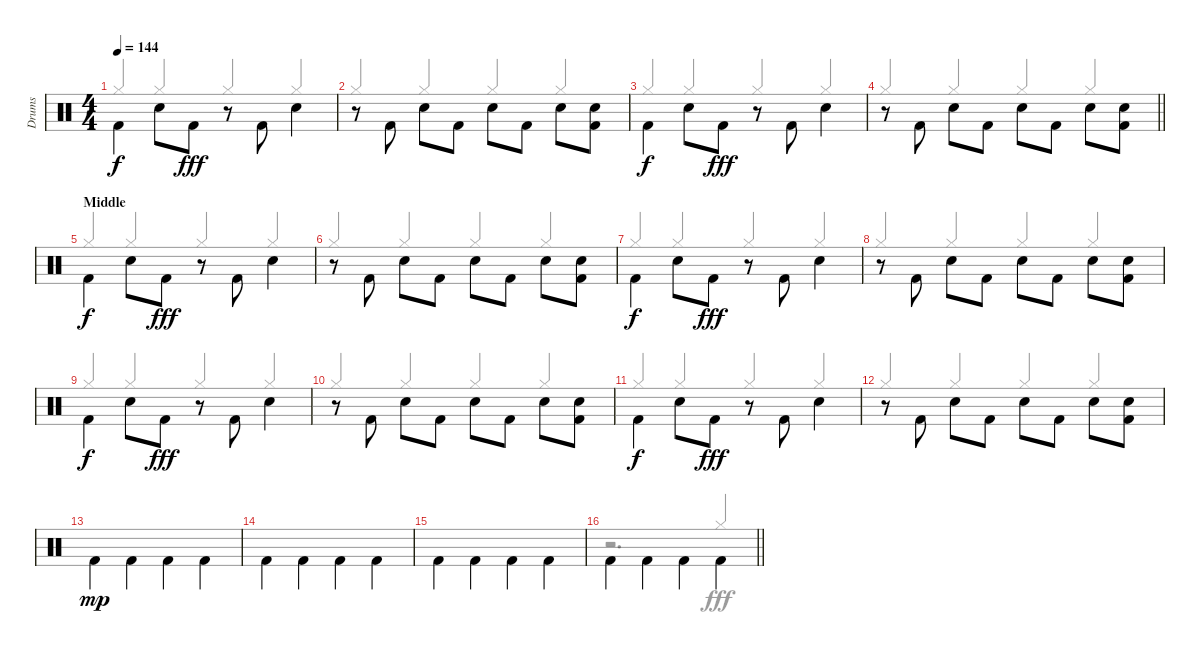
\track ("Drums" "Drums") {instrument percussion}
\staff {score}
\articulation defaults
\voice
\ts (4 4)
\tempo 144
\clef neutral
\ks c "Kick (hit) 2".4{dy f beam Down} "Snare (hit) 2".8{beam Down} "Kick (hit) 2".8{dy fff beam Down}
r.8 "Kick (hit) 2".8{beam Down} "Snare (hit) 2".4{beam Down} |
r.8 "Kick (hit) 2".8{beam Down} "Snare (hit) 2".8{beam Down} "Kick (hit) 2".8{beam Down} "Snare (hit) 2".8{beam Down} "Kick (hit) 2".8{beam Down} "Snare (hit) 2".8{beam Down} ("Snare (hit) 2" "Kick (hit) 2").8{beam Down} |
"Kick (hit) 2".4{dy f beam Down} "Snare (hit) 2".8{beam Down} "Kick (hit) 2".8{dy fff beam Down} r.8 "Kick (hit) 2".8{beam Down} "Snare (hit) 2".4{beam Down} |
\barLineRight lightlight
r.8 "Kick (hit) 2".8{beam Down} "Snare (hit) 2".8{beam Down} "Kick (hit) 2".8{beam Down} "Snare (hit) 2".8{beam Down} "Kick (hit) 2".8{beam Down} "Snare (hit) 2".8{beam Down} ("Snare (hit) 2" "Kick (hit) 2").8{beam Down} |
\section ("" "Middle")
"Kick (hit) 2".4{dy f beam Down} "Snare (hit) 2".8{beam Down} "Kick (hit) 2".8{dy fff beam Down} r.8 "Kick (hit) 2".8{beam Down} "Snare (hit) 2".4{beam Down} |
r.8 "Kick (hit) 2".8{beam Down} "Snare (hit) 2".8{beam Down} "Kick (hit) 2".8{beam Down} "Snare (hit) 2".8{beam Down} "Kick (hit) 2".8{beam Down} "Snare (hit) 2".8{beam Down} ("Snare (hit) 2" "Kick (hit) 2").8{beam Down} |
"Kick (hit) 2".4{dy f beam Down} "Snare (hit) 2".8{beam Down} "Kick (hit) 2".8{dy fff beam Down} r.8 "Kick (hit) 2".8{beam Down} "Snare (hit) 2".4{beam Down} |
r.8 "Kick (hit) 2".8{beam Down} "Snare (hit) 2".8{beam Down} "Kick (hit) 2".8{beam Down} "Snare (hit) 2".8{beam Down} "Kick (hit) 2".8{beam Down} "Snare (hit) 2".8{beam Down} ("Snare (hit) 2" "Kick (hit) 2").8{beam Down} |
"Kick (hit) 2".4{dy f beam Down} "Snare (hit) 2".8{beam Down} "Kick (hit) 2".8{dy fff beam Down} r.8 "Kick (hit) 2".8{beam Down} "Snare (hit) 2".4{beam Down} |
r.8 "Kick (hit) 2".8{beam Down} "Snare (hit) 2".8{beam Down} "Kick (hit) 2".8{beam Down} "Snare (hit) 2".8{beam Down} "Kick (hit) 2".8{beam Down} "Snare (hit) 2".8{beam Down} ("Snare (hit) 2" "Kick (hit) 2").8{beam Down} |
"Kick (hit) 2".4{dy f beam Down} "Snare (hit) 2".8{beam Down} "Kick (hit) 2".8{dy fff beam Down} r.8 "Kick (hit) 2".8{beam Down} "Snare (hit) 2".4{beam Down} |
r.8 "Kick (hit) 2".8{beam Down} "Snare (hit) 2".8{beam Down} "Kick (hit) 2".8{beam Down} "Snare (hit) 2".8{beam Down} "Kick (hit) 2".8{beam Down} "Snare (hit) 2".8{beam Down} ("Snare (hit) 2" "Kick (hit) 2").8{beam Down} |
"Kick (hit) 2".4{dy mp beam Down} "Kick (hit) 2".4{beam Down} "Kick (hit) 2".4{beam Down} "Kick (hit) 2".4{beam Down} |
"Kick (hit) 2".4{beam Down} "Kick (hit) 2".4{beam Down} "Kick (hit) 2".4{beam Down} "Kick (hit) 2".4{beam Down} |
"Kick (hit) 2".4{beam Down} "Kick (hit) 2".4{beam Down} "Kick (hit) 2".4{beam Down} "Kick (hit) 2".4{beam Down} |
\barLineRight lightlight "Kick (hit) 2".4{beam Down} "Kick (hit) 2".4{beam Down} "Kick (hit) 2".4{beam Down} "Kick (hit) 2".4{beam Down}
\voice
\clef neutral
\ottava regular
\simile none
\ks c "Hi-Hat (closed)".4{dy f beam Up} "Hi-Hat (closed)".4{beam Up} "Hi-Hat (closed)".4{beam Up} "Hi-Hat (closed)".4{beam Up}
|
"Hi-Hat (closed)".4{beam Up} "Hi-Hat (closed)".4{beam Up} "Hi-Hat (closed)".4{beam Up} "Hi-Hat (closed)".4{beam Up} |
"Hi-Hat (closed)".4{beam Up} "Hi-Hat (closed)".4{beam Up} "Hi-Hat (closed)".4{beam Up} "Hi-Hat (closed)".4{beam Up} |
\barLineRight lightlight "Hi-Hat (closed)".4{beam Up} "Hi-Hat (closed)".4{beam Up} "Hi-Hat (closed)".4{beam Up} "Hi-Hat (closed)".4{beam Up}
|
"Hi-Hat (closed)".4{beam Up} "Hi-Hat (closed)".4{beam Up} "Hi-Hat (closed)".4{beam Up} "Hi-Hat (closed)".4{beam Up} |
"Hi-Hat (closed)".4{beam Up} "Hi-Hat (closed)".4{beam Up} "Hi-Hat (closed)".4{beam Up} "Hi-Hat (closed)".4{beam Up} |
"Hi-Hat (closed)".4{beam Up} "Hi-Hat (closed)".4{beam Up} "Hi-Hat (closed)".4{beam Up} "Hi-Hat (closed)".4{beam Up} |
"Hi-Hat (closed)".4{beam Up} "Hi-Hat (closed)".4{beam Up} "Hi-Hat (closed)".4{beam Up} "Hi-Hat (closed)".4{beam Up} |
"Hi-Hat (closed)".4{beam Up} "Hi-Hat (closed)".4{beam Up} "Hi-Hat (closed)".4{beam Up} "Hi-Hat (closed)".4{beam Up} |
"Hi-Hat (closed)".4{beam Up} "Hi-Hat (closed)".4{beam Up} "Hi-Hat (closed)".4{beam Up} "Hi-Hat (closed)".4{beam Up} |
"Hi-Hat (closed)".4{beam Up} "Hi-Hat (closed)".4{beam Up} "Hi-Hat (closed)".4{beam Up} "Hi-Hat (closed)".4{beam Up} |
"Hi-Hat (closed)".4{beam Up} "Hi-Hat (closed)".4{beam Up} "Hi-Hat (closed)".4{beam Up} "Hi-Hat (closed)".4{beam Up} |
|
|
|
\barLineRight lightlight
r.2{d} "Hi-Hat (closed)".4{dy fff beam Up}
